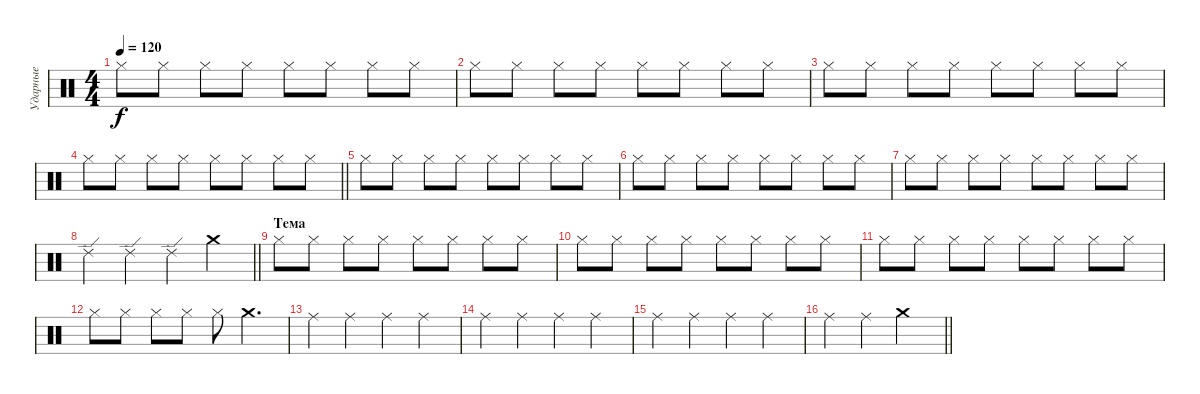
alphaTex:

\track ("Ударные" "Ударные") {instrument percussion}
\staff {score}
\articulation defaults
\ts (4 4)
\tempo 120
\clef neutral
\ks c "Hi-Hat (closed)".8{dy f} "Hi-Hat (closed)".8 "Hi-Hat (closed)".8 "Hi-Hat (closed)".8 "Hi-Hat (closed)".8 "Hi-Hat (closed)".8 "Hi-Hat (closed)".8 "Hi-Hat (closed)".8
|
"Hi-Hat (closed)".8 "Hi-Hat (closed)".8 "Hi-Hat (closed)".8 "Hi-Hat (closed)".8 "Hi-Hat (closed)".8 "Hi-Hat (closed)".8 "Hi-Hat (closed)".8 "Hi-Hat (closed)".8 |
"Hi-Hat (closed)".8 "Hi-Hat (closed)".8 "Hi-Hat (closed)".8 "Hi-Hat (closed)".8 "Hi-Hat (closed)".8 "Hi-Hat (closed)".8 "Hi-Hat (closed)".8 "Hi-Hat (closed)".8 |
\barLineRight lightlight "Hi-Hat (closed)".8 "Hi-Hat (closed)".8 "Hi-Hat (closed)".8 "Hi-Hat (closed)".8 "Hi-Hat (closed)".8 "Hi-Hat (closed)".8 "Hi-Hat (closed)".8 "Hi-Hat (closed)".8
|
"Hi-Hat (closed)".8 "Hi-Hat (closed)".8 "Hi-Hat (closed)".8 "Hi-Hat (closed)".8 "Hi-Hat (closed)".8 "Hi-Hat (closed)".8 "Hi-Hat (closed)".8 "Hi-Hat (closed)".8 |
"Hi-Hat (closed)".8 "Hi-Hat (closed)".8 "Hi-Hat (closed)".8 "Hi-Hat (closed)".8 "Hi-Hat (closed)".8 "Hi-Hat (closed)".8 "Hi-Hat (closed)".8 "Hi-Hat (closed)".8 |
"Hi-Hat (closed)".8 "Hi-Hat (closed)".8 "Hi-Hat (closed)".8 "Hi-Hat (closed)".8 "Hi-Hat (closed)".8 "Hi-Hat (closed)".8 "Hi-Hat (closed)".8 "Hi-Hat (closed)".8 |
\barLineRight lightlight "Ride (edge) 2".4 "Ride (edge) 2".4 "Ride (edge) 2".4 "Crash medium (hit)".4
|
\section ("" "Тема")
"Hi-Hat (closed)".8 "Hi-Hat (closed)".8 "Hi-Hat (closed)".8 "Hi-Hat (closed)".8 "Hi-Hat (closed)".8 "Hi-Hat (closed)".8 "Hi-Hat (closed)".8 "Hi-Hat (closed)".8 |
"Hi-Hat (closed)".8 "Hi-Hat (closed)".8 "Hi-Hat (closed)".8 "Hi-Hat (closed)".8 "Hi-Hat (closed)".8 "Hi-Hat (closed)".8 "Hi-Hat (closed)".8 "Hi-Hat (closed)".8 |
"Hi-Hat (closed)".8 "Hi-Hat (closed)".8 "Hi-Hat (closed)".8 "Hi-Hat (closed)".8 "Hi-Hat (closed)".8 "Hi-Hat (closed)".8 "Hi-Hat (closed)".8 "Hi-Hat (closed)".8 |
"Hi-Hat (closed)".8 "Hi-Hat (closed)".8 "Hi-Hat (closed)".8 "Hi-Hat (closed)".8 "Hi-Hat (closed)".8 "Crash medium (hit)".4{d} |
"Ride (middle)".4 "Ride (middle)".4 "Ride (middle)".4 "Ride (middle)".4 |
"Ride (middle)".4 "Ride (middle)".4 "Ride (middle)".4 "Ride (middle)".4 |
"Ride (middle)".4 "Ride (middle)".4 "Ride (middle)".4 "Ride (middle)".4 |
\barLineRight lightlight "Ride (middle)".4 "Ride (middle)".4 "Crash medium (hit)".2
